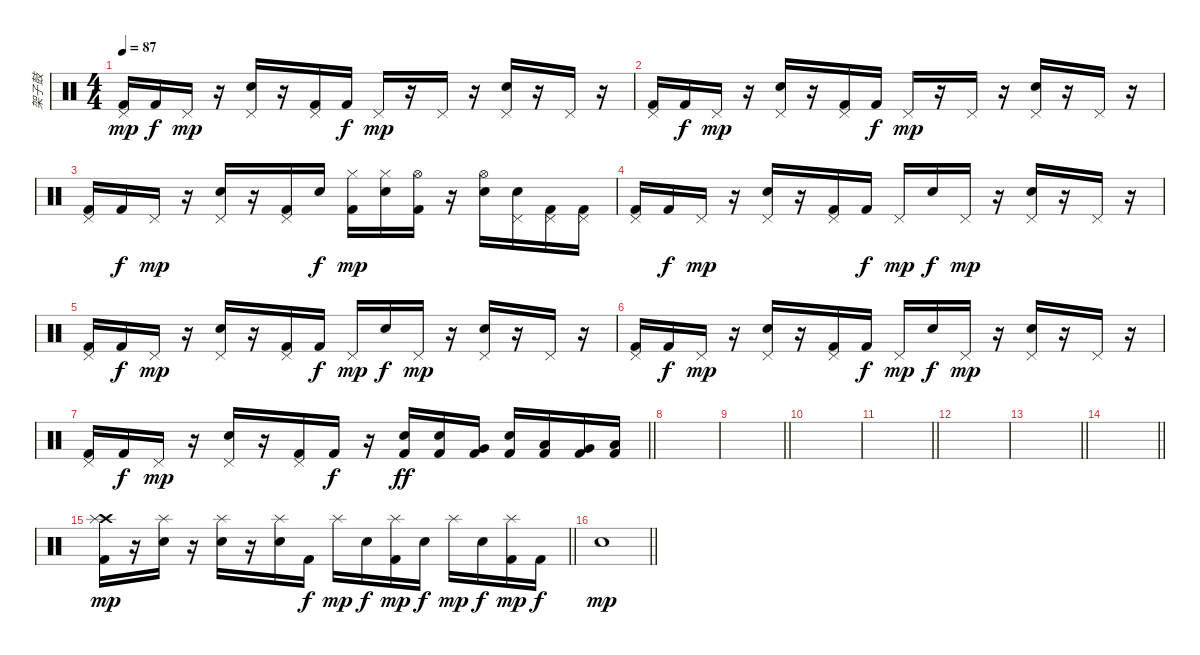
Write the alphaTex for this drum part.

\track ("架子鼓" "架子鼓") {instrument percussion}
\staff {score}
\articulation defaults
\ts (4 4)
\tempo 87
\clef neutral
\ks c
("Pedal Hi-Hat (hit)" "Kick (hit) 2").16{dy mp} "Kick (hit) 2".16{dy f} "Pedal Hi-Hat (hit)".16{dy mp} r.16 ("Pedal Hi-Hat (hit)" "Electric Snare (hit)").16 r.16 ("Pedal Hi-Hat (hit)" "Kick (hit) 2").16 "Kick (hit) 2".16{dy f} "Pedal Hi-Hat (hit)".16{dy mp} r.16 "Pedal Hi-Hat (hit)".16 r.16 ("Pedal Hi-Hat (hit)" "Electric Snare (hit)").16 r.16 "Pedal Hi-Hat (hit)".16 r.16 |
("Pedal Hi-Hat (hit)" "Kick (hit) 2").16 "Kick (hit) 2".16{dy f} "Pedal Hi-Hat (hit)".16{dy mp} r.16 ("Pedal Hi-Hat (hit)" "Electric Snare (hit)").16 r.16 ("Pedal Hi-Hat (hit)" "Kick (hit) 2").16 "Kick (hit) 2".16{dy f} "Pedal Hi-Hat (hit)".16{dy mp} r.16 "Pedal Hi-Hat (hit)".16 r.16 ("Pedal Hi-Hat (hit)" "Electric Snare (hit)").16 r.16 "Pedal Hi-Hat (hit)".16 r.16 |
("Pedal Hi-Hat (hit)" "Kick (hit) 2").16 "Kick (hit) 2".16{dy f} "Pedal Hi-Hat (hit)".16{dy mp} r.16 ("Pedal Hi-Hat (hit)" "Electric Snare (hit)").16 r.16 ("Pedal Hi-Hat (hit)" "Kick (hit) 2").16 "Electric Snare (hit)".16{dy f} ("Hi-Hat (closed)" "Kick (hit) 2").16{dy mp} ("Hi-Hat (closed)" "Electric Snare (hit)").16 ("Hi-Hat (open)" "Kick (hit) 2").16 r.16 ("Hi-Hat (open)" "Electric Snare (hit)").16 ("Pedal Hi-Hat (hit)" "Electric Snare (hit)").16 ("Pedal Hi-Hat (hit)" "Kick (hit) 2").16 ("Pedal Hi-Hat (hit)" "Kick (hit) 2").16 |
("Pedal Hi-Hat (hit)" "Kick (hit) 2").16 "Kick (hit) 2".16{dy f} "Pedal Hi-Hat (hit)".16{dy mp} r.16 ("Pedal Hi-Hat (hit)" "Electric Snare (hit)").16 r.16 ("Pedal Hi-Hat (hit)" "Kick (hit) 2").16 "Kick (hit) 2".16{dy f} "Pedal Hi-Hat (hit)".16{dy mp} "Electric Snare (hit)".16{dy f} "Pedal Hi-Hat (hit)".16{dy mp} r.16 ("Pedal Hi-Hat (hit)" "Electric Snare (hit)").16 r.16 "Pedal Hi-Hat (hit)".16 r.16 |
("Pedal Hi-Hat (hit)" "Kick (hit) 2").16 "Kick (hit) 2".16{dy f} "Pedal Hi-Hat (hit)".16{dy mp} r.16 ("Pedal Hi-Hat (hit)" "Electric Snare (hit)").16 r.16 ("Pedal Hi-Hat (hit)" "Kick (hit) 2").16 "Kick (hit) 2".16{dy f} "Pedal Hi-Hat (hit)".16{dy mp} "Electric Snare (hit)".16{dy f} "Pedal Hi-Hat (hit)".16{dy mp} r.16 ("Pedal Hi-Hat (hit)" "Electric Snare (hit)").16 r.16 "Pedal Hi-Hat (hit)".16 r.16 |
("Pedal Hi-Hat (hit)" "Kick (hit) 2").16 "Kick (hit) 2".16{dy f} "Pedal Hi-Hat (hit)".16{dy mp} r.16 ("Pedal Hi-Hat (hit)" "Electric Snare (hit)").16 r.16 ("Pedal Hi-Hat (hit)" "Kick (hit) 2").16 "Kick (hit) 2".16{dy f} "Pedal Hi-Hat (hit)".16{dy mp} "Electric Snare (hit)".16{dy f} "Pedal Hi-Hat (hit)".16{dy mp} r.16 ("Pedal Hi-Hat (hit)" "Electric Snare (hit)").16 r.16 "Pedal Hi-Hat (hit)".16 r.16 |
\barLineRight lightlight
("Pedal Hi-Hat (hit)" "Kick (hit) 2").16 "Kick (hit) 2".16{dy f} "Pedal Hi-Hat (hit)".16{dy mp} r.16 ("Pedal Hi-Hat (hit)" "Electric Snare (hit)").16 r.16 ("Pedal Hi-Hat (hit)" "Kick (hit) 2").16 "Kick (hit) 2".16{dy f} r.16 ("Electric Snare (hit)" "Kick (hit) 2").16{dy ff} ("Snare (hit) 2" "Kick (hit) 2").16 ("Very Low Tom (hit)" "Kick (hit) 2").16 ("Snare (hit) 2" "Kick (hit) 2").16 ("Low Tom (hit)" "Kick (hit) 2").16 ("Very Low Tom (hit)" "Kick (hit) 2").16 ("Low Floor Tom (hit)" "Kick (hit) 2").16 |
\section ("" "")
|
\barLineRight lightlight
|
|
\barLineRight lightlight
|
|
\barLineRight lightlight
|
\barLineRight lightlight
|
\section ("" "")
\barLineRight lightlight
("Crash high (hit)" "Splash (hit)" "Kick (hit) 2").16{dy mp} r.16 ("Splash (hit)" "Snare (hit) 2").16 r.16 ("Splash (hit)" "Snare (hit) 2").16 r.16 ("Splash (hit)" "Snare (hit) 2").16 "Kick (hit) 2".16{dy f} "Splash (hit)".16{dy mp} "Snare (hit) 2".16{dy f} ("Splash (hit)" "Kick (hit) 2").16{dy mp} "Snare (hit) 2".16{dy f} "Splash (hit)".16{dy mp} "Snare (hit) 2".16{dy f} ("Splash (hit)" "Kick (hit) 2").16{dy mp} "Kick (hit) 2".16{dy f} |
\barLineRight lightlight "Snare (hit) 2".1{dy mp}
